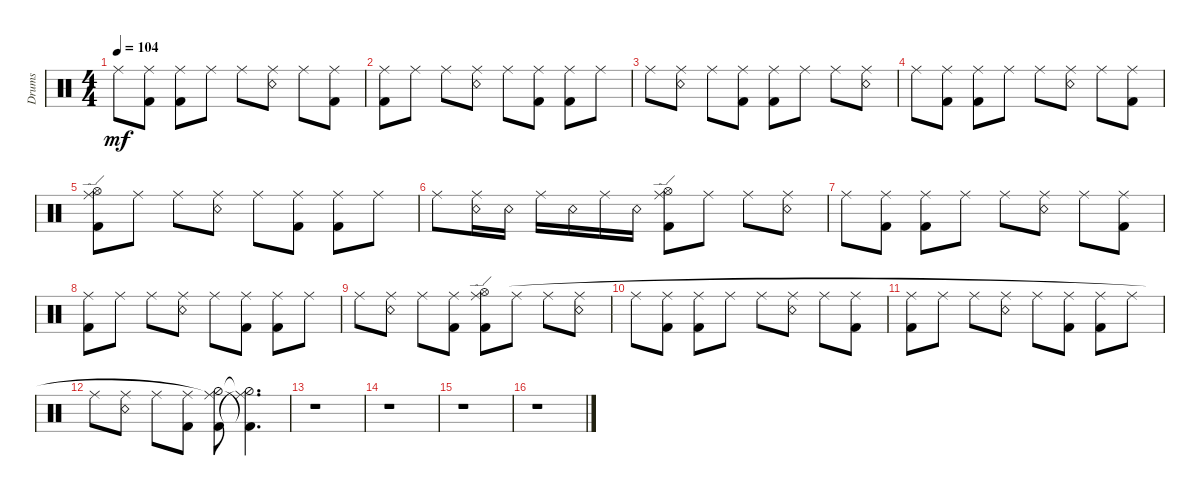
\defaultSystemsLayout 4
\bracketExtendMode groupsimilarinstruments
\otherSystemsTrackNameOrientation horizontal
\track ("Martin Lopez" "Drums") {instrument percussion}
\staff {score}
\articulation defaults
\ts (4 4)
\tempo 104
\clef neutral
\ks c "Ride (middle)".8{dy mf beam Down}
("Ride (middle)" "Kick (hit) 2").8{beam Down} ("Ride (middle)" "Kick (hit) 2").8{beam Down} "Ride (middle)".8{beam Down} "Ride (middle)".8{beam Down} ("Ride (middle)" "Snare (rim shot)").8{beam Down} "Ride (middle)".8{beam Down} ("Ride (middle)" "Kick (hit) 2").8{beam Down} |
("Ride (middle)" "Kick (hit) 2").8{beam Down} "Ride (middle)".8{beam Down} "Ride (middle)".8{beam Down} ("Ride (middle)" "Snare (rim shot)").8{beam Down} "Ride (middle)".8{beam Down} ("Ride (middle)" "Kick (hit) 2").8{beam Down} ("Ride (middle)" "Kick (hit) 2").8{beam Down} "Ride (middle)".8{beam Down} |
"Ride (middle)".8{beam Down} ("Ride (middle)" "Snare (rim shot)").8{beam Down} "Ride (middle)".8{beam Down} ("Ride (middle)" "Kick (hit) 2").8{beam Down} ("Ride (middle)" "Kick (hit) 2").8{beam Down} "Ride (middle)".8{beam Down} "Ride (middle)".8{beam Down} ("Ride (middle)" "Snare (rim shot)").8{beam Down} |
"Ride (middle)".8{beam Down} ("Ride (middle)" "Kick (hit) 2").8{beam Down} ("Ride (middle)" "Kick (hit) 2").8{beam Down} "Ride (middle)".8{beam Down} "Ride (middle)".8{beam Down} ("Ride (middle)" "Snare (rim shot)").8{beam Down} "Ride (middle)".8{beam Down} ("Ride (middle)" "Kick (hit) 2").8{beam Down} |
("Ride (edge)" "Kick (hit) 2" "Hi-Hat (open)").8{beam Down} "Ride (middle)".8{beam Down} "Ride (middle)".8{beam Down} ("Ride (middle)" "Snare (rim shot)").8{beam Down} "Ride (middle)".8{beam Down} ("Ride (middle)" "Kick (hit) 2").8{beam Down} ("Ride (middle)" "Kick (hit) 2").8{beam Down} "Ride (middle)".8{beam Down} |
"Ride (middle)".8{beam Down} ("Ride (middle)" "Snare (rim shot)").16{beam Down} "Snare (rim shot)".16{beam Down} "Ride (middle)".16{beam Down} "Snare (rim shot)".16{beam Down} "Ride (middle)".16{beam Down} "Snare (rim shot)".16{beam Down} ("Ride (edge)" "Hi-Hat (open)" "Kick (hit) 2").8{beam Down} "Ride (middle)".8{beam Down} "Ride (middle)".8{beam Down} ("Ride (middle)" "Snare (rim shot)").8{beam Down} |
"Ride (middle)".8{beam Down} ("Ride (middle)" "Kick (hit) 2").8{beam Down} ("Ride (middle)" "Kick (hit) 2").8{beam Down} "Ride (middle)".8{beam Down} "Ride (middle)".8{beam Down} ("Ride (middle)" "Snare (rim shot)").8{beam Down} "Ride (middle)".8{beam Down} ("Ride (middle)" "Kick (hit) 2").8{beam Down} |
("Ride (middle)" "Kick (hit) 2").8{beam Down} "Ride (middle)".8{beam Down} "Ride (middle)".8{beam Down} ("Ride (middle)" "Snare (rim shot)").8{beam Down} "Ride (middle)".8{beam Down} ("Ride (middle)" "Kick (hit) 2").8{beam Down} ("Ride (middle)" "Kick (hit) 2").8{beam Down} "Ride (middle)".8{beam Down} |
"Ride (middle)".8{beam Down} ("Ride (middle)" "Snare (rim shot)").8{beam Down} "Ride (middle)".8{beam Down} ("Ride (middle)" "Kick (hit) 2").8{beam Down} ("Ride (edge)" "Kick (hit) 2" "Hi-Hat (open)").8{beam Down} "Ride (middle)".8{beam Down} "Ride (middle)".8{beam Down} ("Ride (middle)" "Snare (rim shot)").8{beam Down} |
"Ride (middle)".8{beam Down} ("Ride (middle)" "Kick (hit) 2").8{beam Down} ("Ride (middle)" "Kick (hit) 2").8{beam Down} "Ride (middle)".8{beam Down} "Ride (middle)".8{beam Down} ("Ride (middle)" "Snare (rim shot)").8{beam Down} "Ride (middle)".8{beam Down} ("Ride (middle)" "Kick (hit) 2").8{beam Down} |
("Ride (middle)" "Kick (hit) 2").8{beam Down} "Ride (middle)".8{beam Down} "Ride (middle)".8{beam Down} ("Ride (middle)" "Snare (rim shot)").8{beam Down} "Ride (middle)".8{beam Down} ("Ride (middle)" "Kick (hit) 2").8{beam Down} ("Ride (middle)" "Kick (hit) 2").8{beam Down} "Ride (middle)".8{beam Down} |
"Ride (middle)".8{beam Down} ("Ride (middle)" "Snare (rim shot)").8{beam Down} "Ride (middle)".8{beam Down} ("Ride (middle)" "Kick (hit) 2").8{beam Down} ("Kick (hit) 2" "Hi-Hat (half)" "Ride (middle)"{t}).8{beam Down} ("Ride (middle)"{t} "Hi-Hat (half)"{t} "Kick (hit) 2"{t}).4{d beam Down} |
r.1{beam Down} |
r.1{beam Down} |
r.1{beam Down} |
r.1{beam Down}
